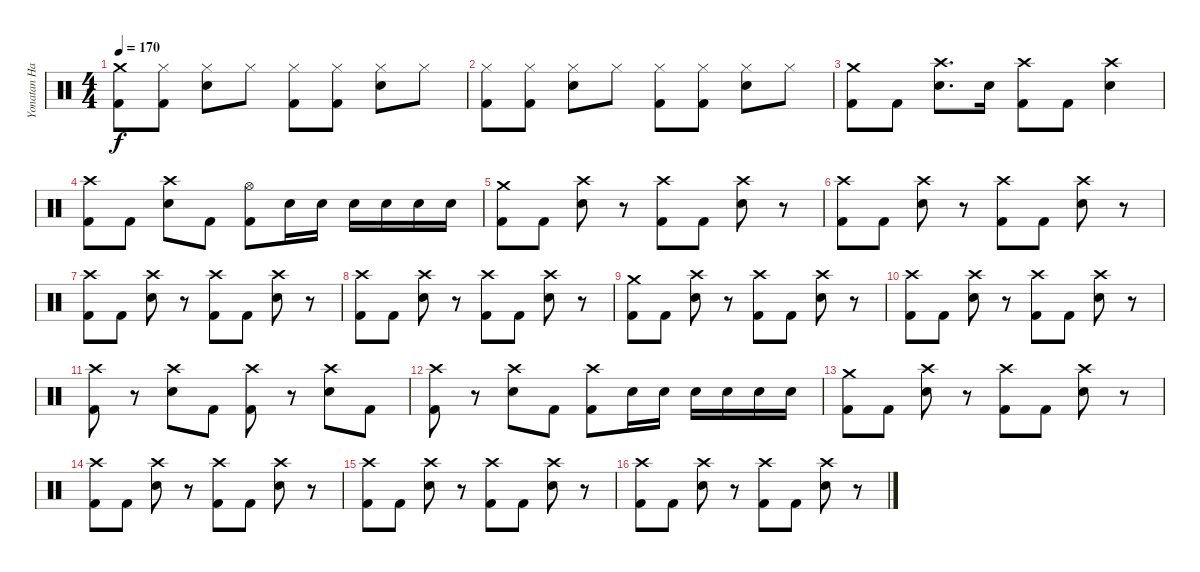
\track ("Yonatan Harpak (drums)" "Yonatan Ha") {instrument percussion}
\staff {score}
\articulation defaults
\ts (4 4)
\tempo 170
\clef neutral
\ks c
("Crash medium (hit)" "Kick (hit) 2").8{dy f} ("Hi-Hat (closed)" "Kick (hit) 2").8 ("Hi-Hat (closed)" "Snare (hit) 2").8 "Hi-Hat (closed)".8 ("Hi-Hat (closed)" "Kick (hit) 2").8 ("Hi-Hat (closed)" "Kick (hit) 2").8 ("Hi-Hat (closed)" "Snare (hit) 2").8 "Hi-Hat (closed)".8 |
("Hi-Hat (closed)" "Kick (hit) 2").8 ("Hi-Hat (closed)" "Kick (hit) 2").8 ("Hi-Hat (closed)" "Snare (hit) 2").8 "Hi-Hat (closed)".8 ("Hi-Hat (closed)" "Kick (hit) 2").8 ("Hi-Hat (closed)" "Kick (hit) 2").8 ("Hi-Hat (closed)" "Snare (hit) 2").8 "Hi-Hat (closed)".8 |
("Crash medium (hit)" "Kick (hit) 2").8 "Kick (hit) 2".8 ("Crash high (hit)" "Snare (hit) 2").8{d} "Snare (hit) 2".16 ("Crash high (hit)" "Kick (hit) 2").8 "Kick (hit) 2".8 ("Crash high (hit)" "Snare (hit) 2").4 |
("Crash high (hit)" "Kick (hit) 2").8 "Kick (hit) 2".8 ("Crash high (hit)" "Snare (hit) 2").8 "Kick (hit) 2".8 ("Hi-Hat (open)" "Kick (hit) 2").8 "Snare (hit) 2".16 "Snare (hit) 2".16 "Snare (hit) 2".16 "Snare (hit) 2".16 "Snare (hit) 2".16 "Snare (hit) 2".16 |
("Crash medium (hit)" "Kick (hit) 2").8 "Kick (hit) 2".8 ("Crash high (hit)" "Snare (hit) 2").8 r.8 ("Crash high (hit)" "Kick (hit) 2").8 "Kick (hit) 2".8 ("Crash high (hit)" "Snare (hit) 2").8 r.8 |
("Crash high (hit)" "Kick (hit) 2").8 "Kick (hit) 2".8 ("Crash high (hit)" "Snare (hit) 2").8 r.8 ("Crash high (hit)" "Kick (hit) 2").8 "Kick (hit) 2".8 ("Crash high (hit)" "Snare (hit) 2").8 r.8 |
("Crash high (hit)" "Kick (hit) 2").8 "Kick (hit) 2".8 ("Crash high (hit)" "Snare (hit) 2").8 r.8 ("Crash high (hit)" "Kick (hit) 2").8 "Kick (hit) 2".8 ("Crash high (hit)" "Snare (hit) 2").8 r.8 |
("Crash high (hit)" "Kick (hit) 2").8 "Kick (hit) 2".8 ("Crash high (hit)" "Snare (hit) 2").8 r.8 ("Crash high (hit)" "Kick (hit) 2").8 "Kick (hit) 2".8 ("Crash high (hit)" "Snare (hit) 2").8 r.8 |
("Crash medium (hit)" "Kick (hit) 2").8 "Kick (hit) 2".8 ("Crash high (hit)" "Snare (hit) 2").8 r.8 ("Crash high (hit)" "Kick (hit) 2").8 "Kick (hit) 2".8 ("Crash high (hit)" "Snare (hit) 2").8 r.8 |
("Crash high (hit)" "Kick (hit) 2").8 "Kick (hit) 2".8 ("Crash high (hit)" "Snare (hit) 2").8 r.8 ("Crash high (hit)" "Kick (hit) 2").8 "Kick (hit) 2".8 ("Crash high (hit)" "Snare (hit) 2").8 r.8 |
("Crash high (hit)" "Kick (hit) 2").8 r.8 ("Crash high (hit)" "Snare (hit) 2").8 "Kick (hit) 2".8 ("Crash high (hit)" "Kick (hit) 2").8 r.8 ("Crash high (hit)" "Snare (hit) 2").8 "Kick (hit) 2".8 |
("Crash high (hit)" "Kick (hit) 2").8 r.8 ("Crash high (hit)" "Snare (hit) 2").8 "Kick (hit) 2".8 ("Crash high (hit)" "Kick (hit) 2").8 "Snare (hit) 2".16 "Snare (hit) 2".16 "Snare (hit) 2".16 "Snare (hit) 2".16 "Snare (hit) 2".16 "Snare (hit) 2".16 |
("Crash medium (hit)" "Kick (hit) 2").8 "Kick (hit) 2".8 ("Crash high (hit)" "Snare (hit) 2").8 r.8 ("Crash high (hit)" "Kick (hit) 2").8 "Kick (hit) 2".8 ("Crash high (hit)" "Snare (hit) 2").8 r.8 |
("Crash high (hit)" "Kick (hit) 2").8 "Kick (hit) 2".8 ("Crash high (hit)" "Snare (hit) 2").8 r.8 ("Crash high (hit)" "Kick (hit) 2").8 "Kick (hit) 2".8 ("Crash high (hit)" "Snare (hit) 2").8 r.8 |
("Crash high (hit)" "Kick (hit) 2").8 "Kick (hit) 2".8 ("Crash high (hit)" "Snare (hit) 2").8 r.8 ("Crash high (hit)" "Kick (hit) 2").8 "Kick (hit) 2".8 ("Crash high (hit)" "Snare (hit) 2").8 r.8 |
("Crash high (hit)" "Kick (hit) 2").8 "Kick (hit) 2".8 ("Crash high (hit)" "Snare (hit) 2").8 r.8 ("Crash high (hit)" "Kick (hit) 2").8 "Kick (hit) 2".8 ("Crash high (hit)" "Snare (hit) 2").8 r.8
